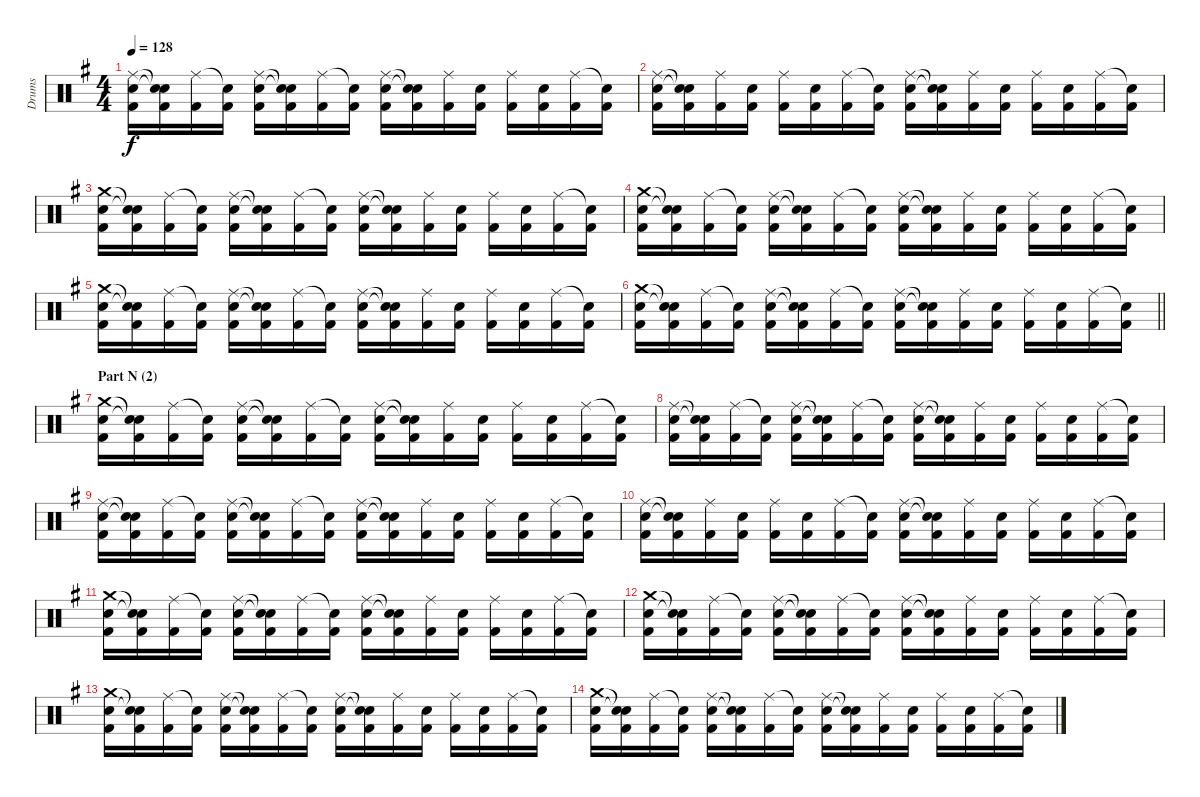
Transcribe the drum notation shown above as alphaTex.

\track ("Drums" "Drums") {instrument percussion}
\staff {score}
\articulation defaults
\ts (4 4)
\tempo 128
\clef neutral
\ks g
("Ride (middle)" "Electric Snare (hit)" "Kick (hit) 2").16{dy f} ("Snare (hit)"{t} "Snare (hit)"{t} "Kick (hit) 2").16 ("Ride (middle)" "Kick (hit) 2").16 ("Snare (hit)"{t} "Kick (hit) 2").16 ("Ride (middle)" "Electric Snare (hit)" "Kick (hit) 2").16 ("Snare (hit)"{t} "Snare (hit)"{t} "Kick (hit) 2").16 ("Ride (middle)" "Kick (hit) 2").16 ("Snare (hit)"{t} "Kick (hit) 2").16 ("Ride (middle)" "Electric Snare (hit)" "Kick (hit) 2").16 ("Snare (hit)"{t} "Snare (hit)"{t} "Kick (hit) 2").16 ("Ride (middle)" "Kick (hit) 2").16 ("Electric Snare (hit)" "Kick (hit) 2").16 ("Ride (middle)" "Kick (hit) 2").16 ("Electric Snare (hit)" "Kick (hit) 2").16 ("Ride (middle)" "Kick (hit) 2").16 ("Snare (hit)"{t} "Kick (hit) 2").16 |
("Ride (middle)" "Electric Snare (hit)" "Kick (hit) 2").16 ("Snare (hit)"{t} "Snare (hit)"{t} "Kick (hit) 2").16 ("Ride (middle)" "Kick (hit) 2").16 ("Electric Snare (hit)" "Kick (hit) 2").16 ("Ride (middle)" "Kick (hit) 2").16 ("Electric Snare (hit)" "Kick (hit) 2").16 ("Ride (middle)" "Kick (hit) 2").16 ("Snare (hit)"{t} "Kick (hit) 2").16 ("Ride (middle)" "Electric Snare (hit)" "Kick (hit) 2").16 ("Snare (hit)"{t} "Snare (hit)"{t} "Kick (hit) 2").16 ("Ride (middle)" "Kick (hit) 2").16 ("Electric Snare (hit)" "Kick (hit) 2").16 ("Ride (middle)" "Kick (hit) 2").16 ("Electric Snare (hit)" "Kick (hit) 2").16 ("Ride (middle)" "Kick (hit) 2").16 ("Snare (hit)"{t} "Kick (hit) 2").16 |
("Crash medium (hit)" "Electric Snare (hit)" "Kick (hit) 2").16 ("Snare (hit)"{t} "Snare (hit)"{t} "Kick (hit) 2").16 ("Ride (middle)" "Kick (hit) 2").16 ("Snare (hit)"{t} "Kick (hit) 2").16 ("Ride (middle)" "Electric Snare (hit)" "Kick (hit) 2").16 ("Snare (hit)"{t} "Snare (hit)"{t} "Kick (hit) 2").16 ("Ride (middle)" "Kick (hit) 2").16 ("Snare (hit)"{t} "Kick (hit) 2").16 ("Ride (middle)" "Electric Snare (hit)" "Kick (hit) 2").16 ("Snare (hit)"{t} "Snare (hit)"{t} "Kick (hit) 2").16 ("Ride (middle)" "Kick (hit) 2").16 ("Electric Snare (hit)" "Kick (hit) 2").16 ("Ride (middle)" "Kick (hit) 2").16 ("Electric Snare (hit)" "Kick (hit) 2").16 ("Ride (middle)" "Kick (hit) 2").16 ("Snare (hit)"{t} "Kick (hit) 2").16 |
("Crash medium (hit)" "Electric Snare (hit)" "Kick (hit) 2").16 ("Snare (hit)"{t} "Snare (hit)"{t} "Kick (hit) 2").16 ("Ride (middle)" "Kick (hit) 2").16 ("Snare (hit)"{t} "Kick (hit) 2").16 ("Ride (middle)" "Electric Snare (hit)" "Kick (hit) 2").16 ("Snare (hit)"{t} "Snare (hit)"{t} "Kick (hit) 2").16 ("Ride (middle)" "Kick (hit) 2").16 ("Snare (hit)"{t} "Kick (hit) 2").16 ("Ride (middle)" "Electric Snare (hit)" "Kick (hit) 2").16 ("Snare (hit)"{t} "Snare (hit)"{t} "Kick (hit) 2").16 ("Ride (middle)" "Kick (hit) 2").16 ("Electric Snare (hit)" "Kick (hit) 2").16 ("Ride (middle)" "Kick (hit) 2").16 ("Electric Snare (hit)" "Kick (hit) 2").16 ("Ride (middle)" "Kick (hit) 2").16 ("Snare (hit)"{t} "Kick (hit) 2").16 |
("Crash medium (hit)" "Electric Snare (hit)" "Kick (hit) 2").16 ("Snare (hit)"{t} "Snare (hit)"{t} "Kick (hit) 2").16 ("Ride (middle)" "Kick (hit) 2").16 ("Snare (hit)"{t} "Kick (hit) 2").16 ("Ride (middle)" "Electric Snare (hit)" "Kick (hit) 2").16 ("Snare (hit)"{t} "Snare (hit)"{t} "Kick (hit) 2").16 ("Ride (middle)" "Kick (hit) 2").16 ("Snare (hit)"{t} "Kick (hit) 2").16 ("Ride (middle)" "Electric Snare (hit)" "Kick (hit) 2").16 ("Snare (hit)"{t} "Snare (hit)"{t} "Kick (hit) 2").16 ("Ride (middle)" "Kick (hit) 2").16 ("Electric Snare (hit)" "Kick (hit) 2").16 ("Ride (middle)" "Kick (hit) 2").16 ("Electric Snare (hit)" "Kick (hit) 2").16 ("Ride (middle)" "Kick (hit) 2").16 ("Snare (hit)"{t} "Kick (hit) 2").16 |
\barLineRight lightlight
("Crash medium (hit)" "Electric Snare (hit)" "Kick (hit) 2").16 ("Snare (hit)"{t} "Snare (hit)"{t} "Kick (hit) 2").16 ("Ride (middle)" "Kick (hit) 2").16 ("Snare (hit)"{t} "Kick (hit) 2").16 ("Ride (middle)" "Electric Snare (hit)" "Kick (hit) 2").16 ("Snare (hit)"{t} "Snare (hit)"{t} "Kick (hit) 2").16 ("Ride (middle)" "Kick (hit) 2").16 ("Snare (hit)"{t} "Kick (hit) 2").16 ("Ride (middle)" "Electric Snare (hit)" "Kick (hit) 2").16 ("Snare (hit)"{t} "Snare (hit)"{t} "Kick (hit) 2").16 ("Ride (middle)" "Kick (hit) 2").16 ("Electric Snare (hit)" "Kick (hit) 2").16 ("Ride (middle)" "Kick (hit) 2").16 ("Electric Snare (hit)" "Kick (hit) 2").16 ("Ride (middle)" "Kick (hit) 2").16 ("Snare (hit)"{t} "Kick (hit) 2").16 |
\section ("" "Part N (2)")
("Crash medium (hit)" "Electric Snare (hit)" "Kick (hit) 2").16 ("Snare (hit)"{t} "Snare (hit)"{t} "Kick (hit) 2").16 ("Ride (middle)" "Kick (hit) 2").16 ("Snare (hit)"{t} "Kick (hit) 2").16 ("Ride (middle)" "Electric Snare (hit)" "Kick (hit) 2").16 ("Snare (hit)"{t} "Snare (hit)"{t} "Kick (hit) 2").16 ("Ride (middle)" "Kick (hit) 2").16 ("Snare (hit)"{t} "Kick (hit) 2").16 ("Ride (middle)" "Electric Snare (hit)" "Kick (hit) 2").16 ("Snare (hit)"{t} "Snare (hit)"{t} "Kick (hit) 2").16 ("Ride (middle)" "Kick (hit) 2").16 ("Electric Snare (hit)" "Kick (hit) 2").16 ("Ride (middle)" "Kick (hit) 2").16 ("Electric Snare (hit)" "Kick (hit) 2").16 ("Ride (middle)" "Kick (hit) 2").16 ("Snare (hit)"{t} "Kick (hit) 2").16 |
("Ride (middle)" "Electric Snare (hit)" "Kick (hit) 2").16 ("Snare (hit)"{t} "Snare (hit)"{t} "Kick (hit) 2").16 ("Ride (middle)" "Kick (hit) 2").16 ("Snare (hit)"{t} "Kick (hit) 2").16 ("Ride (middle)" "Electric Snare (hit)" "Kick (hit) 2").16 ("Snare (hit)"{t} "Snare (hit)"{t} "Kick (hit) 2").16 ("Ride (middle)" "Kick (hit) 2").16 ("Snare (hit)"{t} "Kick (hit) 2").16 ("Ride (middle)" "Electric Snare (hit)" "Kick (hit) 2").16 ("Snare (hit)"{t} "Snare (hit)"{t} "Kick (hit) 2").16 ("Ride (middle)" "Kick (hit) 2").16 ("Electric Snare (hit)" "Kick (hit) 2").16 ("Ride (middle)" "Kick (hit) 2").16 ("Electric Snare (hit)" "Kick (hit) 2").16 ("Ride (middle)" "Kick (hit) 2").16 ("Snare (hit)"{t} "Kick (hit) 2").16 |
("Ride (middle)" "Electric Snare (hit)" "Kick (hit) 2").16 ("Snare (hit)"{t} "Snare (hit)"{t} "Kick (hit) 2").16 ("Ride (middle)" "Kick (hit) 2").16 ("Snare (hit)"{t} "Kick (hit) 2").16 ("Ride (middle)" "Electric Snare (hit)" "Kick (hit) 2").16 ("Snare (hit)"{t} "Snare (hit)"{t} "Kick (hit) 2").16 ("Ride (middle)" "Kick (hit) 2").16 ("Snare (hit)"{t} "Kick (hit) 2").16 ("Ride (middle)" "Electric Snare (hit)" "Kick (hit) 2").16 ("Snare (hit)"{t} "Snare (hit)"{t} "Kick (hit) 2").16 ("Ride (middle)" "Kick (hit) 2").16 ("Electric Snare (hit)" "Kick (hit) 2").16 ("Ride (middle)" "Kick (hit) 2").16 ("Electric Snare (hit)" "Kick (hit) 2").16 ("Ride (middle)" "Kick (hit) 2").16 ("Snare (hit)"{t} "Kick (hit) 2").16 |
("Ride (middle)" "Electric Snare (hit)" "Kick (hit) 2").16 ("Snare (hit)"{t} "Snare (hit)"{t} "Kick (hit) 2").16 ("Ride (middle)" "Kick (hit) 2").16 ("Electric Snare (hit)" "Kick (hit) 2").16 ("Ride (middle)" "Kick (hit) 2").16 ("Electric Snare (hit)" "Kick (hit) 2").16 ("Ride (middle)" "Kick (hit) 2").16 ("Snare (hit)"{t} "Kick (hit) 2").16 ("Ride (middle)" "Electric Snare (hit)" "Kick (hit) 2").16 ("Snare (hit)"{t} "Snare (hit)"{t} "Kick (hit) 2").16 ("Ride (middle)" "Kick (hit) 2").16 ("Electric Snare (hit)" "Kick (hit) 2").16 ("Ride (middle)" "Kick (hit) 2").16 ("Electric Snare (hit)" "Kick (hit) 2").16 ("Ride (middle)" "Kick (hit) 2").16 ("Snare (hit)"{t} "Kick (hit) 2").16 |
("Crash medium (hit)" "Electric Snare (hit)" "Kick (hit) 2").16 ("Snare (hit)"{t} "Snare (hit)"{t} "Kick (hit) 2").16 ("Ride (middle)" "Kick (hit) 2").16 ("Snare (hit)"{t} "Kick (hit) 2").16 ("Ride (middle)" "Electric Snare (hit)" "Kick (hit) 2").16 ("Snare (hit)"{t} "Snare (hit)"{t} "Kick (hit) 2").16 ("Ride (middle)" "Kick (hit) 2").16 ("Snare (hit)"{t} "Kick (hit) 2").16 ("Ride (middle)" "Electric Snare (hit)" "Kick (hit) 2").16 ("Snare (hit)"{t} "Snare (hit)"{t} "Kick (hit) 2").16 ("Ride (middle)" "Kick (hit) 2").16 ("Electric Snare (hit)" "Kick (hit) 2").16 ("Ride (middle)" "Kick (hit) 2").16 ("Electric Snare (hit)" "Kick (hit) 2").16 ("Ride (middle)" "Kick (hit) 2").16 ("Snare (hit)"{t} "Kick (hit) 2").16 |
("Crash medium (hit)" "Electric Snare (hit)" "Kick (hit) 2").16 ("Snare (hit)"{t} "Snare (hit)"{t} "Kick (hit) 2").16 ("Ride (middle)" "Kick (hit) 2").16 ("Snare (hit)"{t} "Kick (hit) 2").16 ("Ride (middle)" "Electric Snare (hit)" "Kick (hit) 2").16 ("Snare (hit)"{t} "Snare (hit)"{t} "Kick (hit) 2").16 ("Ride (middle)" "Kick (hit) 2").16 ("Snare (hit)"{t} "Kick (hit) 2").16 ("Ride (middle)" "Electric Snare (hit)" "Kick (hit) 2").16 ("Snare (hit)"{t} "Snare (hit)"{t} "Kick (hit) 2").16 ("Ride (middle)" "Kick (hit) 2").16 ("Electric Snare (hit)" "Kick (hit) 2").16 ("Ride (middle)" "Kick (hit) 2").16 ("Electric Snare (hit)" "Kick (hit) 2").16 ("Ride (middle)" "Kick (hit) 2").16 ("Snare (hit)"{t} "Kick (hit) 2").16 |
("Crash medium (hit)" "Electric Snare (hit)" "Kick (hit) 2").16 ("Snare (hit)"{t} "Snare (hit)"{t} "Kick (hit) 2").16 ("Ride (middle)" "Kick (hit) 2").16 ("Snare (hit)"{t} "Kick (hit) 2").16 ("Ride (middle)" "Electric Snare (hit)" "Kick (hit) 2").16 ("Snare (hit)"{t} "Snare (hit)"{t} "Kick (hit) 2").16 ("Ride (middle)" "Kick (hit) 2").16 ("Snare (hit)"{t} "Kick (hit) 2").16 ("Ride (middle)" "Electric Snare (hit)" "Kick (hit) 2").16 ("Snare (hit)"{t} "Snare (hit)"{t} "Kick (hit) 2").16 ("Ride (middle)" "Kick (hit) 2").16 ("Electric Snare (hit)" "Kick (hit) 2").16 ("Ride (middle)" "Kick (hit) 2").16 ("Electric Snare (hit)" "Kick (hit) 2").16 ("Ride (middle)" "Kick (hit) 2").16 ("Snare (hit)"{t} "Kick (hit) 2").16 |
("Crash medium (hit)" "Electric Snare (hit)" "Kick (hit) 2").16 ("Snare (hit)"{t} "Snare (hit)"{t} "Kick (hit) 2").16 ("Ride (middle)" "Kick (hit) 2").16 ("Snare (hit)"{t} "Kick (hit) 2").16 ("Ride (middle)" "Electric Snare (hit)" "Kick (hit) 2").16 ("Snare (hit)"{t} "Snare (hit)"{t} "Kick (hit) 2").16 ("Ride (middle)" "Kick (hit) 2").16 ("Snare (hit)"{t} "Kick (hit) 2").16 ("Ride (middle)" "Electric Snare (hit)" "Kick (hit) 2").16 ("Snare (hit)"{t} "Snare (hit)"{t} "Kick (hit) 2").16 ("Ride (middle)" "Kick (hit) 2").16 ("Electric Snare (hit)" "Kick (hit) 2").16 ("Ride (middle)" "Kick (hit) 2").16 ("Electric Snare (hit)" "Kick (hit) 2").16 ("Ride (middle)" "Kick (hit) 2").16 ("Snare (hit)"{t} "Kick (hit) 2").16
